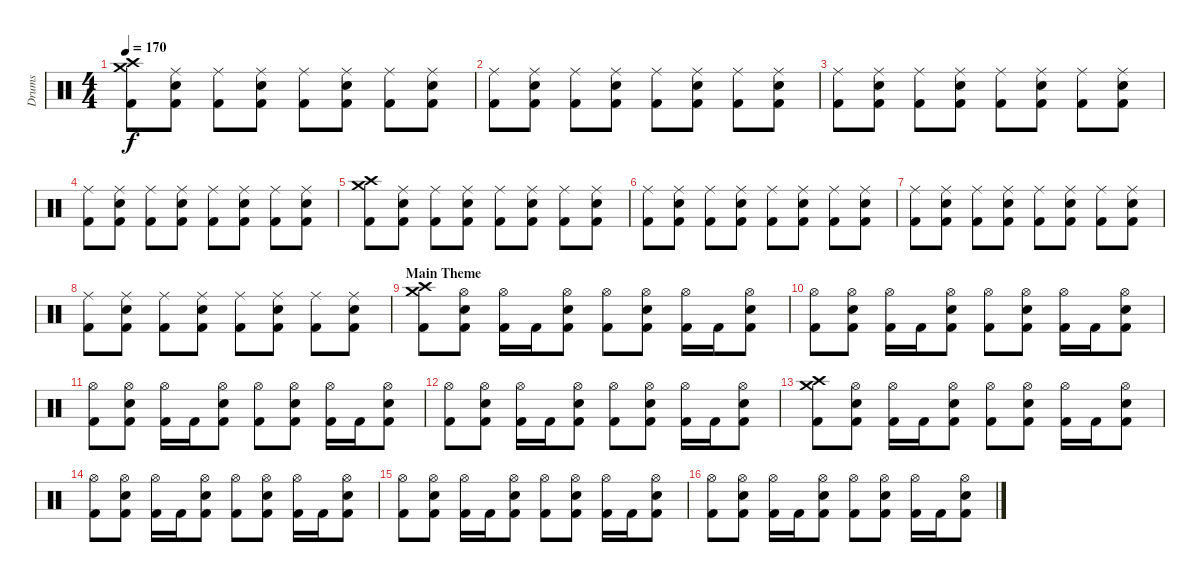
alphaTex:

\track ("Drums" "Drums") {instrument percussion}
\staff {score}
\articulation defaults
\ts (4 4)
\tempo 170
\clef neutral
\ks c
("Crash medium (hit)" "Crash high (hit)" "Kick (hit) 2").8{dy f} ("Ride (middle)" "Snare (hit) 2" "Kick (hit) 2").8 ("Ride (middle)" "Kick (hit) 2").8 ("Ride (middle)" "Snare (hit) 2" "Kick (hit) 2").8 ("Ride (middle)" "Kick (hit) 2").8 ("Ride (middle)" "Snare (hit) 2" "Kick (hit) 2").8 ("Ride (middle)" "Kick (hit) 2").8 ("Ride (middle)" "Snare (hit) 2" "Kick (hit) 2").8 |
("Ride (middle)" "Kick (hit) 2").8 ("Ride (middle)" "Snare (hit) 2" "Kick (hit) 2").8 ("Ride (middle)" "Kick (hit) 2").8 ("Ride (middle)" "Snare (hit) 2" "Kick (hit) 2").8 ("Ride (middle)" "Kick (hit) 2").8 ("Ride (middle)" "Snare (hit) 2" "Kick (hit) 2").8 ("Ride (middle)" "Kick (hit) 2").8 ("Ride (middle)" "Snare (hit) 2" "Kick (hit) 2").8 |
("Ride (middle)" "Kick (hit) 2").8 ("Ride (middle)" "Snare (hit) 2" "Kick (hit) 2").8 ("Ride (middle)" "Kick (hit) 2").8 ("Ride (middle)" "Snare (hit) 2" "Kick (hit) 2").8 ("Ride (middle)" "Kick (hit) 2").8 ("Ride (middle)" "Snare (hit) 2" "Kick (hit) 2").8 ("Ride (middle)" "Kick (hit) 2").8 ("Ride (middle)" "Snare (hit) 2" "Kick (hit) 2").8 |
("Ride (middle)" "Kick (hit) 2").8 ("Ride (middle)" "Snare (hit) 2" "Kick (hit) 2").8 ("Ride (middle)" "Kick (hit) 2").8 ("Ride (middle)" "Snare (hit) 2" "Kick (hit) 2").8 ("Ride (middle)" "Kick (hit) 2").8 ("Ride (middle)" "Snare (hit) 2" "Kick (hit) 2").8 ("Ride (middle)" "Kick (hit) 2").8 ("Ride (middle)" "Snare (hit) 2" "Kick (hit) 2").8 |
("Crash medium (hit)" "Crash high (hit)" "Kick (hit) 2").8 ("Ride (middle)" "Snare (hit) 2" "Kick (hit) 2").8 ("Ride (middle)" "Kick (hit) 2").8 ("Ride (middle)" "Snare (hit) 2" "Kick (hit) 2").8 ("Ride (middle)" "Kick (hit) 2").8 ("Ride (middle)" "Snare (hit) 2" "Kick (hit) 2").8 ("Ride (middle)" "Kick (hit) 2").8 ("Ride (middle)" "Snare (hit) 2" "Kick (hit) 2").8 |
("Ride (middle)" "Kick (hit) 2").8 ("Ride (middle)" "Snare (hit) 2" "Kick (hit) 2").8 ("Ride (middle)" "Kick (hit) 2").8 ("Ride (middle)" "Snare (hit) 2" "Kick (hit) 2").8 ("Ride (middle)" "Kick (hit) 2").8 ("Ride (middle)" "Snare (hit) 2" "Kick (hit) 2").8 ("Ride (middle)" "Kick (hit) 2").8 ("Ride (middle)" "Snare (hit) 2" "Kick (hit) 2").8 |
("Ride (middle)" "Kick (hit) 2").8 ("Ride (middle)" "Snare (hit) 2" "Kick (hit) 2").8 ("Ride (middle)" "Kick (hit) 2").8 ("Ride (middle)" "Snare (hit) 2" "Kick (hit) 2").8 ("Ride (middle)" "Kick (hit) 2").8 ("Ride (middle)" "Snare (hit) 2" "Kick (hit) 2").8 ("Ride (middle)" "Kick (hit) 2").8 ("Ride (middle)" "Snare (hit) 2" "Kick (hit) 2").8 |
("Ride (middle)" "Kick (hit) 2").8 ("Ride (middle)" "Snare (hit) 2" "Kick (hit) 2").8 ("Ride (middle)" "Kick (hit) 2").8 ("Ride (middle)" "Snare (hit) 2" "Kick (hit) 2").8 ("Ride (middle)" "Kick (hit) 2").8 ("Ride (middle)" "Snare (hit) 2" "Kick (hit) 2").8 ("Ride (middle)" "Kick (hit) 2").8 ("Ride (middle)" "Snare (hit) 2" "Kick (hit) 2").8 |
\section ("" "Main Theme")
("Crash high (hit)" "Crash medium (hit)" "Kick (hit) 2").8 ("Hi-Hat (open)" "Snare (hit) 2" "Kick (hit) 2").8 ("Hi-Hat (open)" "Kick (hit) 2").16 "Kick (hit) 2".16 ("Hi-Hat (open)" "Snare (hit) 2" "Kick (hit) 2").8 ("Hi-Hat (open)" "Kick (hit) 2").8 ("Hi-Hat (open)" "Snare (hit) 2" "Kick (hit) 2").8 ("Hi-Hat (open)" "Kick (hit) 2").16 "Kick (hit) 2".16 ("Hi-Hat (open)" "Snare (hit) 2" "Kick (hit) 2").8 |
("Hi-Hat (open)" "Kick (hit) 2").8 ("Hi-Hat (open)" "Snare (hit) 2" "Kick (hit) 2").8 ("Hi-Hat (open)" "Kick (hit) 2").16 "Kick (hit) 2".16 ("Hi-Hat (open)" "Snare (hit) 2" "Kick (hit) 2").8 ("Hi-Hat (open)" "Kick (hit) 2").8 ("Hi-Hat (open)" "Snare (hit) 2" "Kick (hit) 2").8 ("Hi-Hat (open)" "Kick (hit) 2").16 "Kick (hit) 2".16 ("Hi-Hat (open)" "Snare (hit) 2" "Kick (hit) 2").8 |
("Hi-Hat (open)" "Kick (hit) 2").8 ("Hi-Hat (open)" "Snare (hit) 2" "Kick (hit) 2").8 ("Hi-Hat (open)" "Kick (hit) 2").16 "Kick (hit) 2".16 ("Hi-Hat (open)" "Snare (hit) 2" "Kick (hit) 2").8 ("Hi-Hat (open)" "Kick (hit) 2").8 ("Hi-Hat (open)" "Snare (hit) 2" "Kick (hit) 2").8 ("Hi-Hat (open)" "Kick (hit) 2").16 "Kick (hit) 2".16 ("Hi-Hat (open)" "Snare (hit) 2" "Kick (hit) 2").8 |
("Hi-Hat (open)" "Kick (hit) 2").8 ("Hi-Hat (open)" "Snare (hit) 2" "Kick (hit) 2").8 ("Hi-Hat (open)" "Kick (hit) 2").16 "Kick (hit) 2".16 ("Hi-Hat (open)" "Snare (hit) 2" "Kick (hit) 2").8 ("Hi-Hat (open)" "Kick (hit) 2").8 ("Hi-Hat (open)" "Snare (hit) 2" "Kick (hit) 2").8 ("Hi-Hat (open)" "Kick (hit) 2").16 "Kick (hit) 2".16 ("Hi-Hat (open)" "Snare (hit) 2" "Kick (hit) 2").8 |
("Crash high (hit)" "Crash medium (hit)" "Kick (hit) 2").8 ("Hi-Hat (open)" "Snare (hit) 2" "Kick (hit) 2").8 ("Hi-Hat (open)" "Kick (hit) 2").16 "Kick (hit) 2".16 ("Hi-Hat (open)" "Snare (hit) 2" "Kick (hit) 2").8 ("Hi-Hat (open)" "Kick (hit) 2").8 ("Hi-Hat (open)" "Snare (hit) 2" "Kick (hit) 2").8 ("Hi-Hat (open)" "Kick (hit) 2").16 "Kick (hit) 2".16 ("Hi-Hat (open)" "Snare (hit) 2" "Kick (hit) 2").8 |
("Hi-Hat (open)" "Kick (hit) 2").8 ("Hi-Hat (open)" "Snare (hit) 2" "Kick (hit) 2").8 ("Hi-Hat (open)" "Kick (hit) 2").16 "Kick (hit) 2".16 ("Hi-Hat (open)" "Snare (hit) 2" "Kick (hit) 2").8 ("Hi-Hat (open)" "Kick (hit) 2").8 ("Hi-Hat (open)" "Snare (hit) 2" "Kick (hit) 2").8 ("Hi-Hat (open)" "Kick (hit) 2").16 "Kick (hit) 2".16 ("Hi-Hat (open)" "Snare (hit) 2" "Kick (hit) 2").8 |
("Hi-Hat (open)" "Kick (hit) 2").8 ("Hi-Hat (open)" "Snare (hit) 2" "Kick (hit) 2").8 ("Hi-Hat (open)" "Kick (hit) 2").16 "Kick (hit) 2".16 ("Hi-Hat (open)" "Snare (hit) 2" "Kick (hit) 2").8 ("Hi-Hat (open)" "Kick (hit) 2").8 ("Hi-Hat (open)" "Snare (hit) 2" "Kick (hit) 2").8 ("Hi-Hat (open)" "Kick (hit) 2").16 "Kick (hit) 2".16 ("Hi-Hat (open)" "Snare (hit) 2" "Kick (hit) 2").8 |
("Hi-Hat (open)" "Kick (hit) 2").8 ("Hi-Hat (open)" "Snare (hit) 2" "Kick (hit) 2").8 ("Hi-Hat (open)" "Kick (hit) 2").16 "Kick (hit) 2".16 ("Hi-Hat (open)" "Snare (hit) 2" "Kick (hit) 2").8 ("Hi-Hat (open)" "Kick (hit) 2").8 ("Hi-Hat (open)" "Snare (hit) 2" "Kick (hit) 2").8 ("Hi-Hat (open)" "Kick (hit) 2").16 "Kick (hit) 2".16 ("Hi-Hat (open)" "Snare (hit) 2" "Kick (hit) 2").8
